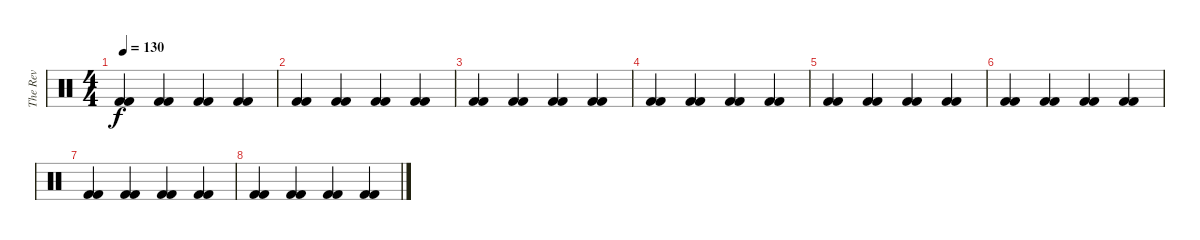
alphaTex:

\track ("The Rev" "The Rev") {instrument percussion}
\staff {score}
\articulation defaults
\ts (4 4)
\tempo 130
\clef neutral
\ks c
("Kick (hit) 2" "Kick (hit) 2").4{dy f} ("Kick (hit) 2" "Kick (hit) 2").4 ("Kick (hit) 2" "Kick (hit) 2").4 ("Kick (hit) 2" "Kick (hit) 2").4 |
("Kick (hit) 2" "Kick (hit) 2").4 ("Kick (hit) 2" "Kick (hit) 2").4 ("Kick (hit) 2" "Kick (hit) 2").4 ("Kick (hit) 2" "Kick (hit) 2").4 |
("Kick (hit) 2" "Kick (hit) 2").4 ("Kick (hit) 2" "Kick (hit) 2").4 ("Kick (hit) 2" "Kick (hit) 2").4 ("Kick (hit) 2" "Kick (hit) 2").4 |
("Kick (hit) 2" "Kick (hit) 2").4 ("Kick (hit) 2" "Kick (hit) 2").4 ("Kick (hit) 2" "Kick (hit) 2").4 ("Kick (hit) 2" "Kick (hit) 2").4 |
("Kick (hit) 2" "Kick (hit) 2").4 ("Kick (hit) 2" "Kick (hit) 2").4 ("Kick (hit) 2" "Kick (hit) 2").4 ("Kick (hit) 2" "Kick (hit) 2").4 |
("Kick (hit) 2" "Kick (hit) 2").4 ("Kick (hit) 2" "Kick (hit) 2").4 ("Kick (hit) 2" "Kick (hit) 2").4 ("Kick (hit) 2" "Kick (hit) 2").4 |
("Kick (hit) 2" "Kick (hit) 2").4 ("Kick (hit) 2" "Kick (hit) 2").4 ("Kick (hit) 2" "Kick (hit) 2").4 ("Kick (hit) 2" "Kick (hit) 2").4 |
("Kick (hit) 2" "Kick (hit) 2").4 ("Kick (hit) 2" "Kick (hit) 2").4 ("Kick (hit) 2" "Kick (hit) 2").4 ("Kick (hit) 2" "Kick (hit) 2").4
